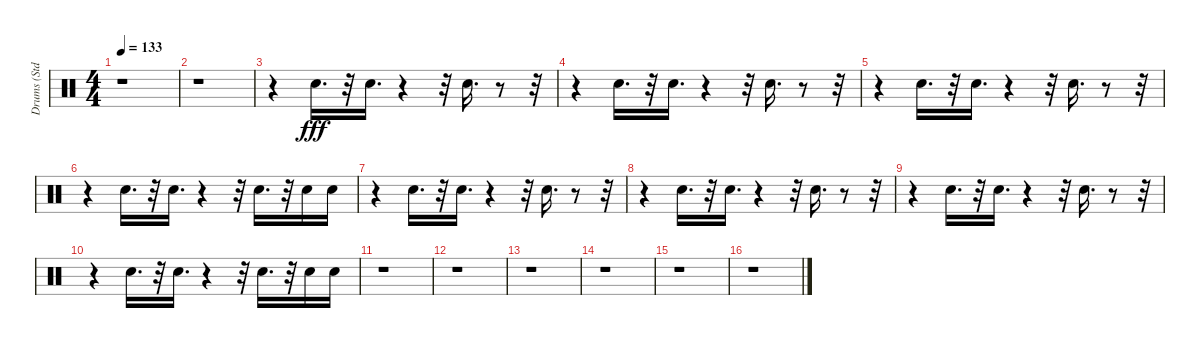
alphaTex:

\track ("Drums (Std.)" "Drums (Std") {instrument percussion}
\staff {score}
\articulation defaults
\ts (4 4)
\tempo 133
\clef neutral
\ks c
r.1{dy fff} |
r.1 |
r.4 "Snare (hit) 2".16{d} r.32 "Snare (hit) 2".16{d} r.4 r.32 "Snare (hit) 2".16{d} r.8 r.32 |
r.4 "Snare (hit) 2".16{d} r.32 "Snare (hit) 2".16{d} r.4 r.32 "Snare (hit) 2".16{d} r.8 r.32 |
r.4 "Snare (hit) 2".16{d} r.32 "Snare (hit) 2".16{d} r.4 r.32 "Snare (hit) 2".16{d} r.8 r.32 |
r.4 "Snare (hit) 2".16{d} r.32 "Snare (hit) 2".16{d} r.4 r.32 "Snare (hit) 2".16{d} r.32 "Snare (hit) 2".16 "Snare (hit) 2".16 |
r.4 "Snare (hit) 2".16{d} r.32 "Snare (hit) 2".16{d} r.4 r.32 "Snare (hit) 2".16{d} r.8 r.32 |
r.4 "Snare (hit) 2".16{d} r.32 "Snare (hit) 2".16{d} r.4 r.32 "Snare (hit) 2".16{d} r.8 r.32 |
r.4 "Snare (hit) 2".16{d} r.32 "Snare (hit) 2".16{d} r.4 r.32 "Snare (hit) 2".16{d} r.8 r.32 |
r.4 "Snare (hit) 2".16{d} r.32 "Snare (hit) 2".16{d} r.4 r.32 "Snare (hit) 2".16{d} r.32 "Snare (hit) 2".16 "Snare (hit) 2".16 |
r.1 |
r.1 |
r.1 |
r.1 |
r.1 |
r.1
